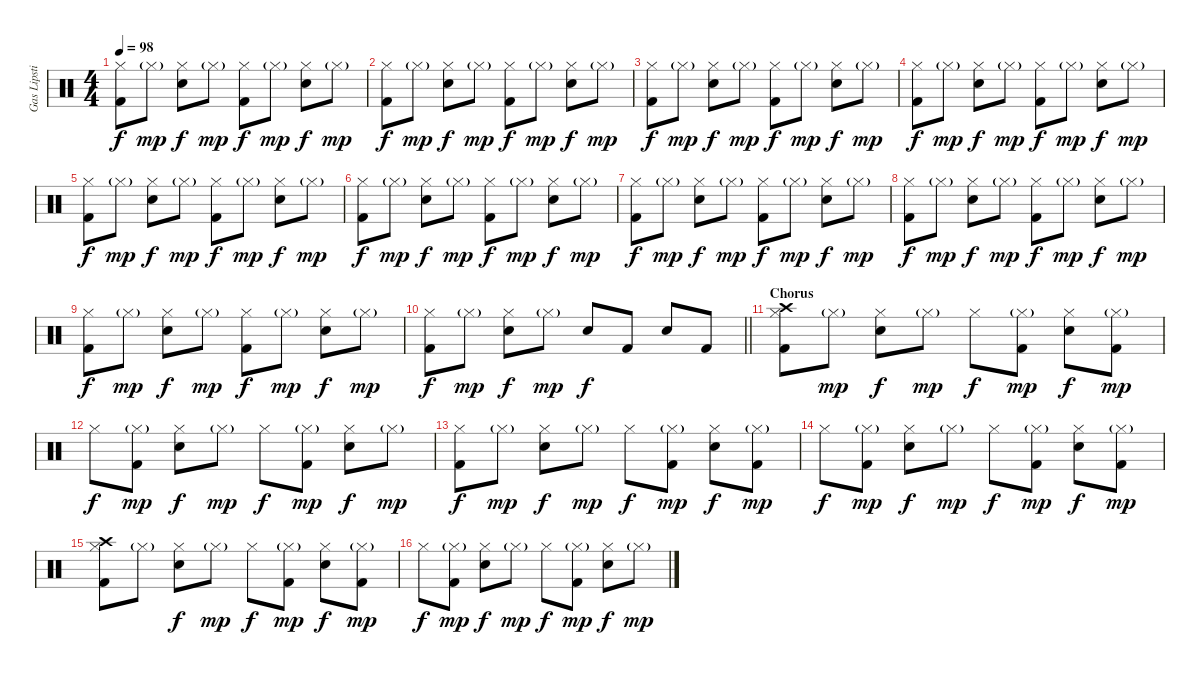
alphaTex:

\track ("Gas Lipstick (Drums)" "Gas Lipsti") {instrument percussion}
\staff {score}
\articulation defaults
\ts (4 4)
\tempo 98
\clef neutral
\ks c
("Hi-Hat (closed)" "Kick (hit) 2").8{dy f} "Hi-Hat (closed)"{g}.8{dy mp} ("Hi-Hat (closed)" "Snare (hit) 2").8{dy f} "Hi-Hat (closed)"{g}.8{dy mp} ("Hi-Hat (closed)" "Kick (hit) 2").8{dy f} "Hi-Hat (closed)"{g}.8{dy mp} ("Hi-Hat (closed)" "Snare (hit) 2").8{dy f} "Hi-Hat (closed)"{g}.8{dy mp} |
("Hi-Hat (closed)" "Kick (hit) 2").8{dy f} "Hi-Hat (closed)"{g}.8{dy mp} ("Hi-Hat (closed)" "Snare (hit) 2").8{dy f} "Hi-Hat (closed)"{g}.8{dy mp} ("Hi-Hat (closed)" "Kick (hit) 2").8{dy f} "Hi-Hat (closed)"{g}.8{dy mp} ("Hi-Hat (closed)" "Snare (hit) 2").8{dy f} "Hi-Hat (closed)"{g}.8{dy mp} |
("Hi-Hat (closed)" "Kick (hit) 2").8{dy f} "Hi-Hat (closed)"{g}.8{dy mp} ("Hi-Hat (closed)" "Snare (hit) 2").8{dy f} "Hi-Hat (closed)"{g}.8{dy mp} ("Hi-Hat (closed)" "Kick (hit) 2").8{dy f} "Hi-Hat (closed)"{g}.8{dy mp} ("Hi-Hat (closed)" "Snare (hit) 2").8{dy f} "Hi-Hat (closed)"{g}.8{dy mp} |
("Hi-Hat (closed)" "Kick (hit) 2").8{dy f} "Hi-Hat (closed)"{g}.8{dy mp} ("Hi-Hat (closed)" "Snare (hit) 2").8{dy f} "Hi-Hat (closed)"{g}.8{dy mp} ("Hi-Hat (closed)" "Kick (hit) 2").8{dy f} "Hi-Hat (closed)"{g}.8{dy mp} ("Hi-Hat (closed)" "Snare (hit) 2").8{dy f} "Hi-Hat (closed)"{g}.8{dy mp} |
("Hi-Hat (closed)" "Kick (hit) 2").8{dy f} "Hi-Hat (closed)"{g}.8{dy mp} ("Hi-Hat (closed)" "Snare (hit) 2").8{dy f} "Hi-Hat (closed)"{g}.8{dy mp} ("Hi-Hat (closed)" "Kick (hit) 2").8{dy f} "Hi-Hat (closed)"{g}.8{dy mp} ("Hi-Hat (closed)" "Snare (hit) 2").8{dy f} "Hi-Hat (closed)"{g}.8{dy mp} |
("Hi-Hat (closed)" "Kick (hit) 2").8{dy f} "Hi-Hat (closed)"{g}.8{dy mp} ("Hi-Hat (closed)" "Snare (hit) 2").8{dy f} "Hi-Hat (closed)"{g}.8{dy mp} ("Hi-Hat (closed)" "Kick (hit) 2").8{dy f} "Hi-Hat (closed)"{g}.8{dy mp} ("Hi-Hat (closed)" "Snare (hit) 2").8{dy f} "Hi-Hat (closed)"{g}.8{dy mp} |
("Hi-Hat (closed)" "Kick (hit) 2").8{dy f} "Hi-Hat (closed)"{g}.8{dy mp} ("Hi-Hat (closed)" "Snare (hit) 2").8{dy f} "Hi-Hat (closed)"{g}.8{dy mp} ("Hi-Hat (closed)" "Kick (hit) 2").8{dy f} "Hi-Hat (closed)"{g}.8{dy mp} ("Hi-Hat (closed)" "Snare (hit) 2").8{dy f} "Hi-Hat (closed)"{g}.8{dy mp} |
("Hi-Hat (closed)" "Kick (hit) 2").8{dy f} "Hi-Hat (closed)"{g}.8{dy mp} ("Hi-Hat (closed)" "Snare (hit) 2").8{dy f} "Hi-Hat (closed)"{g}.8{dy mp} ("Hi-Hat (closed)" "Kick (hit) 2").8{dy f} "Hi-Hat (closed)"{g}.8{dy mp} ("Hi-Hat (closed)" "Snare (hit) 2").8{dy f} "Hi-Hat (closed)"{g}.8{dy mp} |
("Hi-Hat (closed)" "Kick (hit) 2").8{dy f} "Hi-Hat (closed)"{g}.8{dy mp} ("Hi-Hat (closed)" "Snare (hit) 2").8{dy f} "Hi-Hat (closed)"{g}.8{dy mp} ("Hi-Hat (closed)" "Kick (hit) 2").8{dy f} "Hi-Hat (closed)"{g}.8{dy mp} ("Hi-Hat (closed)" "Snare (hit) 2").8{dy f} "Hi-Hat (closed)"{g}.8{dy mp} |
\barLineRight lightlight
("Hi-Hat (closed)" "Kick (hit) 2").8{dy f} "Hi-Hat (closed)"{g}.8{dy mp} ("Hi-Hat (closed)" "Snare (hit) 2").8{dy f} "Hi-Hat (closed)"{g}.8{dy mp} "Snare (hit) 2".8{dy f} "Kick (hit) 2".8 "Snare (hit) 2".8 "Kick (hit) 2".8 |
\section ("" "Chorus")
("Crash high (hit)" "Hi-Hat (closed)" "Kick (hit) 2").8 "Hi-Hat (closed)"{g}.8{dy mp} ("Hi-Hat (closed)" "Snare (hit) 2").8{dy f} "Hi-Hat (closed)"{g}.8{dy mp} "Hi-Hat (closed)".8{dy f} ("Hi-Hat (closed)"{g} "Kick (hit) 2").8{dy mp} ("Hi-Hat (closed)" "Snare (hit) 2").8{dy f} ("Hi-Hat (closed)"{g} "Kick (hit) 2").8{dy mp} |
"Hi-Hat (closed)".8{dy f} ("Hi-Hat (closed)"{g} "Kick (hit) 2").8{dy mp} ("Hi-Hat (closed)" "Snare (hit) 2").8{dy f} "Hi-Hat (closed)"{g}.8{dy mp} "Hi-Hat (closed)".8{dy f} ("Hi-Hat (closed)"{g} "Kick (hit) 2").8{dy mp} ("Hi-Hat (closed)" "Snare (hit) 2").8{dy f} "Hi-Hat (closed)"{g}.8{dy mp} |
("Hi-Hat (closed)" "Kick (hit) 2").8{dy f} "Hi-Hat (closed)"{g}.8{dy mp} ("Hi-Hat (closed)" "Snare (hit) 2").8{dy f} "Hi-Hat (closed)"{g}.8{dy mp} "Hi-Hat (closed)".8{dy f} ("Hi-Hat (closed)"{g} "Kick (hit) 2").8{dy mp} ("Hi-Hat (closed)" "Snare (hit) 2").8{dy f} ("Hi-Hat (closed)"{g} "Kick (hit) 2").8{dy mp} |
"Hi-Hat (closed)".8{dy f} ("Hi-Hat (closed)"{g} "Kick (hit) 2").8{dy mp} ("Hi-Hat (closed)" "Snare (hit) 2").8{dy f} "Hi-Hat (closed)"{g}.8{dy mp} "Hi-Hat (closed)".8{dy f} ("Hi-Hat (closed)"{g} "Kick (hit) 2").8{dy mp} ("Hi-Hat (closed)" "Snare (hit) 2").8{dy f} ("Hi-Hat (closed)"{g} "Kick (hit) 2").8{dy mp} |
("Crash high (hit)" "Hi-Hat (closed)" "Kick (hit) 2").8 "Hi-Hat (closed)"{g}.8 ("Hi-Hat (closed)" "Snare (hit) 2").8{dy f} "Hi-Hat (closed)"{g}.8{dy mp} "Hi-Hat (closed)".8{dy f} ("Hi-Hat (closed)"{g} "Kick (hit) 2").8{dy mp} ("Hi-Hat (closed)" "Snare (hit) 2").8{dy f} ("Hi-Hat (closed)"{g} "Kick (hit) 2").8{dy mp} |
"Hi-Hat (closed)".8{dy f} ("Hi-Hat (closed)"{g} "Kick (hit) 2").8{dy mp} ("Hi-Hat (closed)" "Snare (hit) 2").8{dy f} "Hi-Hat (closed)"{g}.8{dy mp} "Hi-Hat (closed)".8{dy f} ("Hi-Hat (closed)"{g} "Kick (hit) 2").8{dy mp} ("Hi-Hat (closed)" "Snare (hit) 2").8{dy f} "Hi-Hat (closed)"{g}.8{dy mp}
